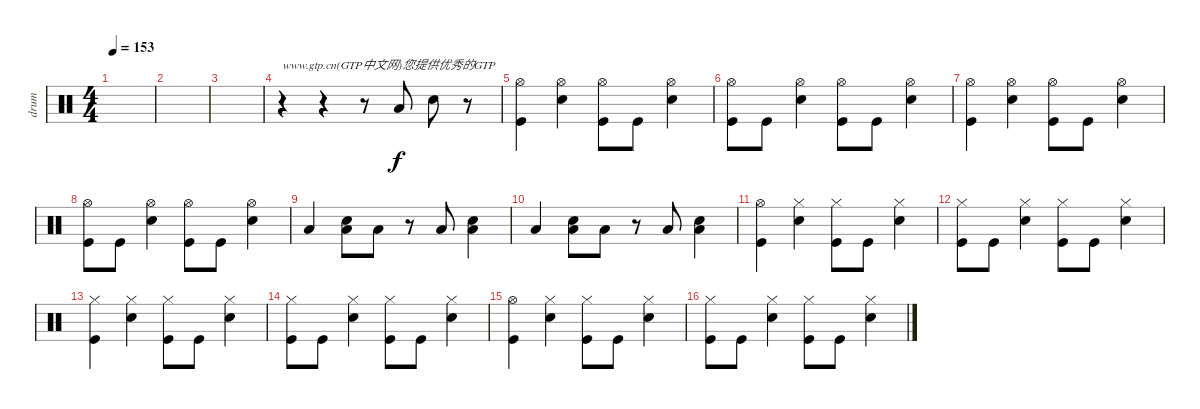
\track ("drum" "drum") {instrument percussion}
\staff {score}
\articulation defaults
\ts (4 4)
\tempo 153
\clef neutral
\ks c
|
|
|
r.4{txt "www.gtp.cn(GTP中文网)您提供优秀的GTP"} r.4 r.8 "Low Floor Tom (hit)".8 "Snare (hit) 2".8 r.8 |
("Hi-Hat (open)" "Kick (hit)").4 ("Hi-Hat (open)" "Snare (hit) 2").4 ("Hi-Hat (open)" "Kick (hit)").8 "Kick (hit)".8 ("Hi-Hat (open)" "Snare (hit) 2").4 |
("Hi-Hat (open)" "Kick (hit)").8 "Kick (hit)".8 ("Hi-Hat (open)" "Snare (hit) 2").4 ("Hi-Hat (open)" "Kick (hit)").8 "Kick (hit)".8 ("Hi-Hat (open)" "Snare (hit) 2").4 |
("Hi-Hat (open)" "Kick (hit)").4 ("Hi-Hat (open)" "Snare (hit) 2").4 ("Hi-Hat (open)" "Kick (hit)").8 "Kick (hit)".8 ("Hi-Hat (open)" "Snare (hit) 2").4 |
("Hi-Hat (open)" "Kick (hit)").8 "Kick (hit)".8 ("Hi-Hat (open)" "Snare (hit) 2").4 ("Hi-Hat (open)" "Kick (hit)").8 "Kick (hit)".8 ("Hi-Hat (open)" "Snare (hit) 2").4 |
"Low Floor Tom (hit)".4 ("Snare (hit) 2" "Low Floor Tom (hit)").8 "Low Floor Tom (hit)".8 r.8 "Low Floor Tom (hit)".8 ("Snare (hit) 2" "Low Floor Tom (hit)").4 |
"Low Floor Tom (hit)".4 ("Snare (hit) 2" "Low Floor Tom (hit)").8 "Low Floor Tom (hit)".8 r.8 "Low Floor Tom (hit)".8 ("Snare (hit) 2" "Low Floor Tom (hit)").4 |
("Hi-Hat (open)" "Kick (hit)").4 ("Hi-Hat (closed)" "Snare (hit) 2").4 ("Hi-Hat (closed)" "Kick (hit)").8 "Kick (hit)".8 ("Hi-Hat (closed)" "Snare (hit) 2").4 |
("Hi-Hat (closed)" "Kick (hit)").8 "Kick (hit)".8 ("Hi-Hat (closed)" "Snare (hit) 2").4 ("Hi-Hat (closed)" "Kick (hit)").8 "Kick (hit)".8 ("Hi-Hat (closed)" "Snare (hit) 2").4 |
("Hi-Hat (closed)" "Kick (hit)").4 ("Hi-Hat (closed)" "Snare (hit) 2").4 ("Hi-Hat (closed)" "Kick (hit)").8 "Kick (hit)".8 ("Hi-Hat (closed)" "Snare (hit) 2").4 |
("Hi-Hat (closed)" "Kick (hit)").8 "Kick (hit)".8 ("Hi-Hat (closed)" "Snare (hit) 2").4 ("Hi-Hat (closed)" "Kick (hit)").8 "Kick (hit)".8 ("Hi-Hat (closed)" "Snare (hit) 2").4 |
("Hi-Hat (open)" "Kick (hit)").4 ("Hi-Hat (closed)" "Snare (hit) 2").4 ("Hi-Hat (closed)" "Kick (hit)").8 "Kick (hit)".8 ("Hi-Hat (closed)" "Snare (hit) 2").4 |
("Hi-Hat (closed)" "Kick (hit)").8 "Kick (hit)".8 ("Hi-Hat (closed)" "Snare (hit) 2").4 ("Hi-Hat (closed)" "Kick (hit)").8 "Kick (hit)".8 ("Hi-Hat (closed)" "Snare (hit) 2").4
